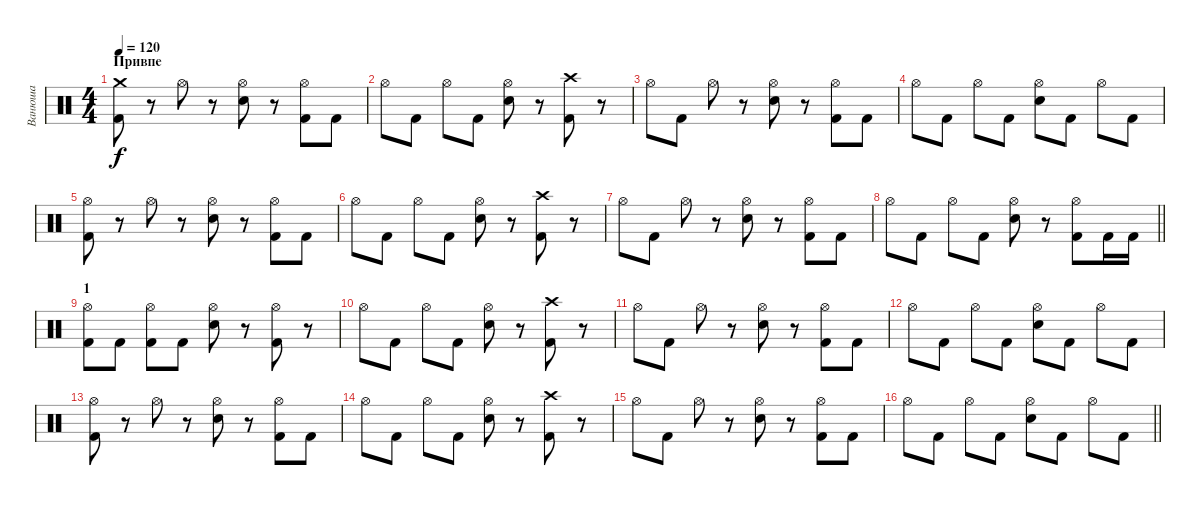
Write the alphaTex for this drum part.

\track ("Ванюша" "Ванюша") {instrument percussion}
\staff {score}
\articulation defaults
\ts (4 4)
\section ("" "Привпе")
\tempo 120
\clef neutral
\ks c
("Crash medium (hit)" "Kick (hit) 2").8{dy f} r.8 "Hi-Hat (open)".8 r.8 ("Hi-Hat (open)" "Snare (hit) 2").8 r.8 ("Hi-Hat (open)" "Kick (hit) 2").8 "Kick (hit) 2".8 |
"Hi-Hat (open)".8 "Kick (hit) 2".8 "Hi-Hat (open)".8 "Kick (hit) 2".8 ("Hi-Hat (open)" "Snare (hit) 2").8 r.8 ("Crash high (hit)" "Kick (hit) 2").8 r.8 |
"Hi-Hat (open)".8 "Kick (hit) 2".8 "Hi-Hat (open)".8 r.8 ("Hi-Hat (open)" "Snare (hit) 2").8 r.8 ("Hi-Hat (open)" "Kick (hit) 2").8 "Kick (hit) 2".8 |
"Hi-Hat (open)".8 "Kick (hit) 2".8 "Hi-Hat (open)".8 "Kick (hit) 2".8 ("Hi-Hat (open)" "Snare (hit) 2").8 "Kick (hit) 2".8 "Hi-Hat (open)".8 "Kick (hit) 2".8 |
("Hi-Hat (open)" "Kick (hit) 2").8 r.8 "Hi-Hat (open)".8 r.8 ("Hi-Hat (open)" "Snare (hit) 2").8 r.8 ("Hi-Hat (open)" "Kick (hit) 2").8 "Kick (hit) 2".8 |
"Hi-Hat (open)".8 "Kick (hit) 2".8 "Hi-Hat (open)".8 "Kick (hit) 2".8 ("Hi-Hat (open)" "Snare (hit) 2").8 r.8 ("Crash high (hit)" "Kick (hit) 2").8 r.8 |
"Hi-Hat (open)".8 "Kick (hit) 2".8 "Hi-Hat (open)".8 r.8 ("Hi-Hat (open)" "Snare (hit) 2").8 r.8 ("Hi-Hat (open)" "Kick (hit) 2").8 "Kick (hit) 2".8 |
\barLineRight lightlight "Hi-Hat (open)".8 "Kick (hit) 2".8 "Hi-Hat (open)".8 "Kick (hit) 2".8
("Hi-Hat (open)" "Snare (hit) 2").8 r.8 ("Hi-Hat (open)" "Kick (hit) 2").8 "Kick (hit) 2".16 "Kick (hit) 2".16 |
\section ("" "1")
("Hi-Hat (open)" "Kick (hit) 2").8 "Kick (hit) 2".8 ("Hi-Hat (open)" "Kick (hit) 2").8 "Kick (hit) 2".8 ("Hi-Hat (open)" "Snare (hit) 2").8 r.8 ("Hi-Hat (open)" "Kick (hit) 2").8 r.8 |
"Hi-Hat (open)".8 "Kick (hit) 2".8 "Hi-Hat (open)".8 "Kick (hit) 2".8 ("Hi-Hat (open)" "Snare (hit) 2").8 r.8 ("Crash high (hit)" "Kick (hit) 2").8 r.8 |
"Hi-Hat (open)".8 "Kick (hit) 2".8 "Hi-Hat (open)".8 r.8 ("Hi-Hat (open)" "Snare (hit) 2").8 r.8 ("Hi-Hat (open)" "Kick (hit) 2").8 "Kick (hit) 2".8 |
"Hi-Hat (open)".8 "Kick (hit) 2".8 "Hi-Hat (open)".8 "Kick (hit) 2".8 ("Hi-Hat (open)" "Snare (hit) 2").8 "Kick (hit) 2".8 "Hi-Hat (open)".8 "Kick (hit) 2".8 |
("Hi-Hat (open)" "Kick (hit) 2").8 r.8 "Hi-Hat (open)".8 r.8 ("Hi-Hat (open)" "Snare (hit) 2").8 r.8 ("Hi-Hat (open)" "Kick (hit) 2").8 "Kick (hit) 2".8 |
"Hi-Hat (open)".8 "Kick (hit) 2".8 "Hi-Hat (open)".8 "Kick (hit) 2".8 ("Hi-Hat (open)" "Snare (hit) 2").8 r.8 ("Crash high (hit)" "Kick (hit) 2").8 r.8 |
"Hi-Hat (open)".8 "Kick (hit) 2".8 "Hi-Hat (open)".8 r.8 ("Hi-Hat (open)" "Snare (hit) 2").8 r.8 ("Hi-Hat (open)" "Kick (hit) 2").8 "Kick (hit) 2".8 |
\barLineRight lightlight "Hi-Hat (open)".8 "Kick (hit) 2".8 "Hi-Hat (open)".8 "Kick (hit) 2".8
("Hi-Hat (open)" "Snare (hit) 2").8 "Kick (hit) 2".8 "Hi-Hat (open)".8 "Kick (hit) 2".8
